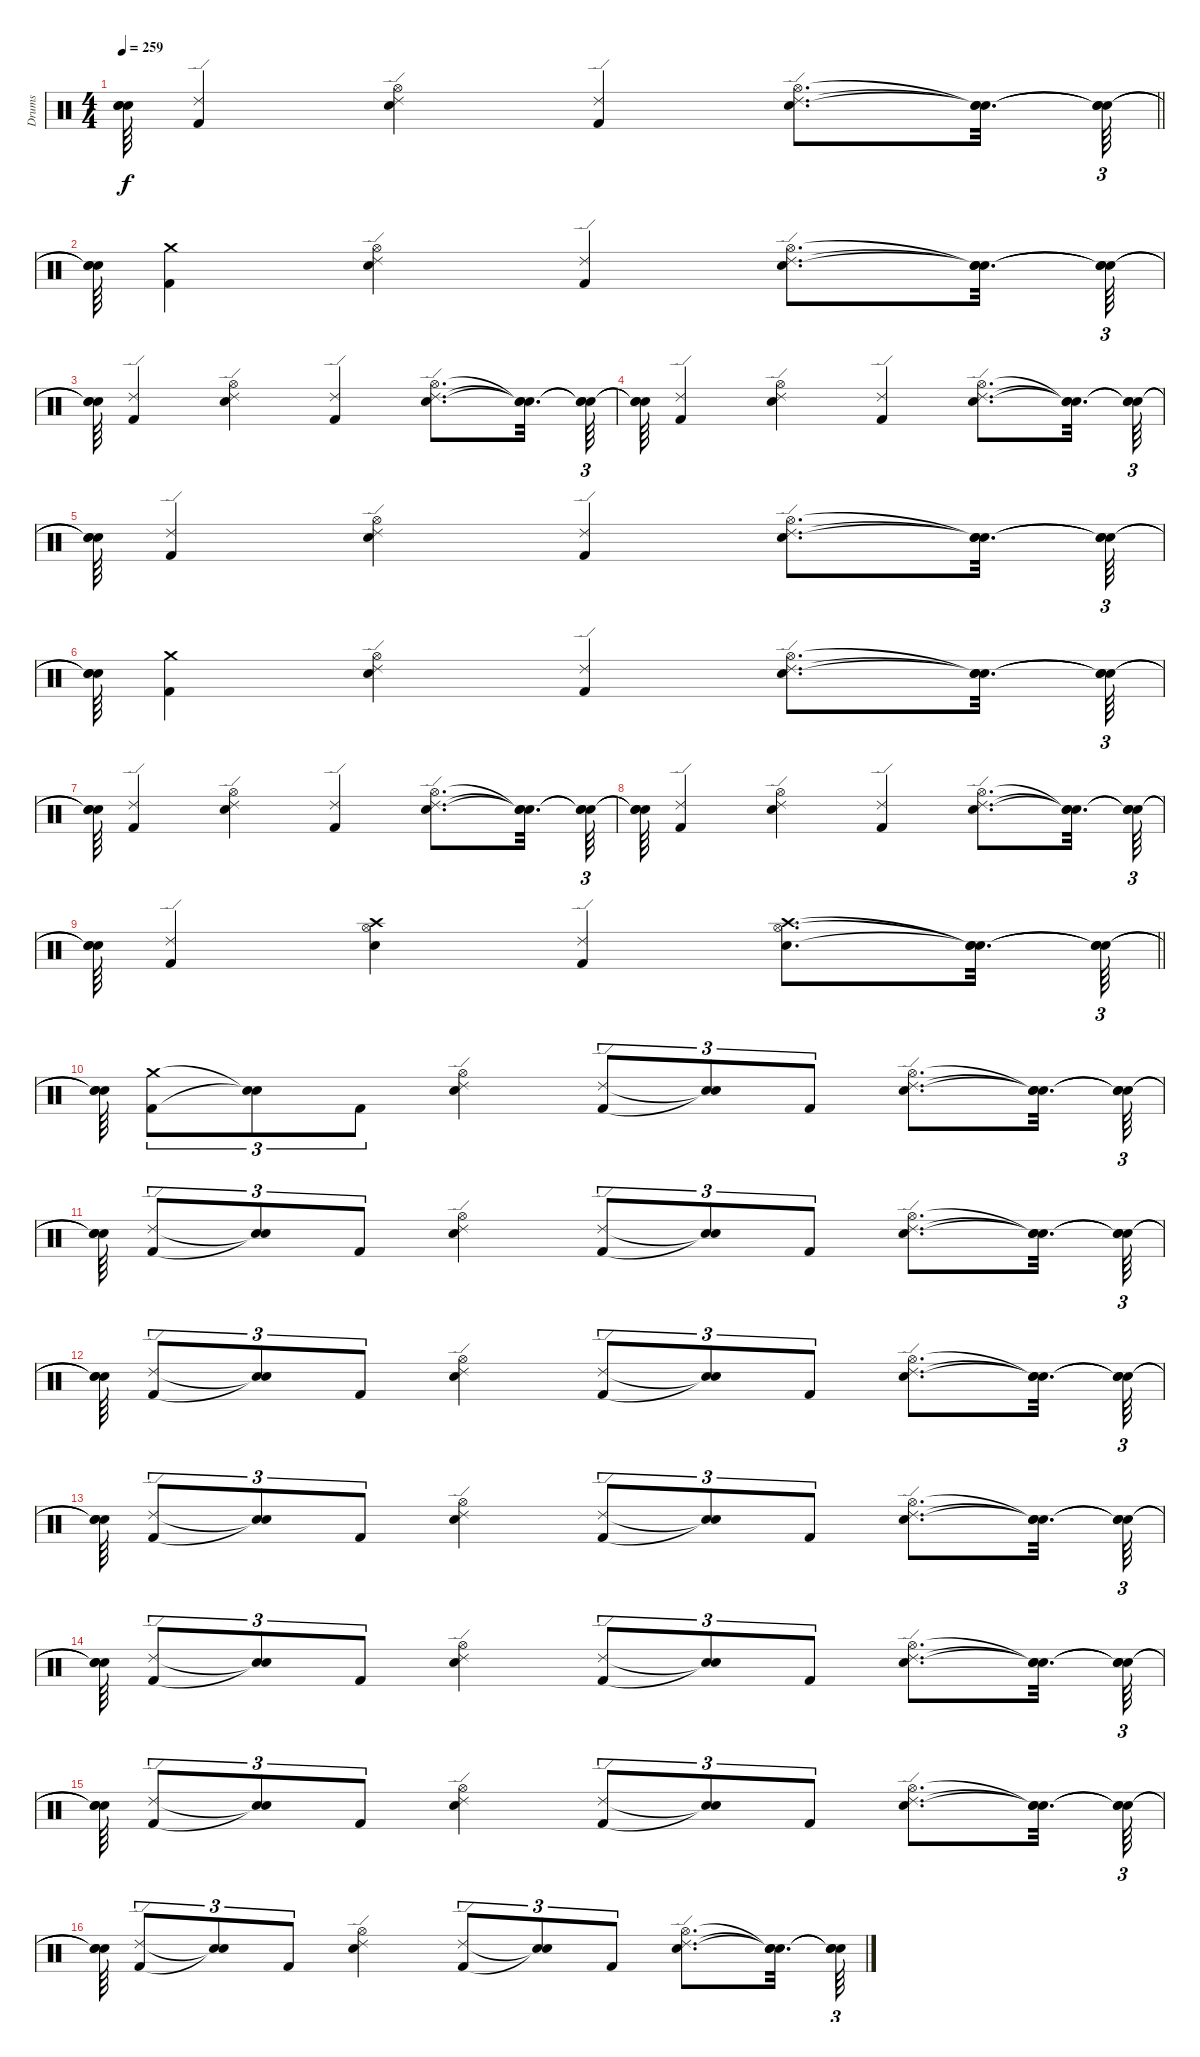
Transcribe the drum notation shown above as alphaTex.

\track ("Drums" "Drums") {instrument percussion}
\staff {score}
\articulation defaults
\ts (4 4)
\tempo 259
\clef neutral
\barLineRight lightlight
\ks c
("Snare (hit)"{t} "Snare (hit)"{t} "Snare (hit)"{t}).64{dy f} ("Kick (hit) 2" "Ride (edge) 2").4 ("Electric Snare (hit)" "Ride (edge) 2" "Hi-Hat (open)").4 ("Kick (hit) 2" "Ride (edge) 2").4 ("Electric Snare (hit)" "Ride (edge) 2" "Hi-Hat (open)").8{d} ("Snare (hit)"{t} "Snare (hit)"{t} "Snare (hit)"{t}).32{d} ("Snare (hit)"{t} "Snare (hit)"{t} "Snare (hit)"{t}).64{tu (3 2)} |
("Snare (hit)"{t} "Snare (hit)"{t} "Snare (hit)"{t}).64 ("Kick (hit) 2" "Crash medium (hit)").4 ("Electric Snare (hit)" "Ride (edge) 2" "Hi-Hat (open)").4 ("Kick (hit) 2" "Ride (edge) 2").4 ("Electric Snare (hit)" "Ride (edge) 2" "Hi-Hat (open)").8{d} ("Snare (hit)"{t} "Snare (hit)"{t} "Snare (hit)"{t}).32{d} ("Snare (hit)"{t} "Snare (hit)"{t} "Snare (hit)"{t}).64{tu (3 2)} |
("Snare (hit)"{t} "Snare (hit)"{t} "Snare (hit)"{t}).64 ("Kick (hit) 2" "Ride (edge) 2").4 ("Electric Snare (hit)" "Ride (edge) 2" "Hi-Hat (open)").4 ("Kick (hit) 2" "Ride (edge) 2").4 ("Electric Snare (hit)" "Ride (edge) 2" "Hi-Hat (open)").8{d} ("Snare (hit)"{t} "Snare (hit)"{t} "Snare (hit)"{t}).32{d} ("Snare (hit)"{t} "Snare (hit)"{t} "Snare (hit)"{t}).64{tu (3 2)} |
("Snare (hit)"{t} "Snare (hit)"{t} "Snare (hit)"{t}).64 ("Kick (hit) 2" "Ride (edge) 2").4 ("Electric Snare (hit)" "Ride (edge) 2" "Hi-Hat (open)").4 ("Kick (hit) 2" "Ride (edge) 2").4 ("Electric Snare (hit)" "Ride (edge) 2" "Hi-Hat (open)").8{d} ("Snare (hit)"{t} "Snare (hit)"{t} "Snare (hit)"{t}).32{d} ("Snare (hit)"{t} "Snare (hit)"{t} "Snare (hit)"{t}).64{tu (3 2)} |
("Snare (hit)"{t} "Snare (hit)"{t} "Snare (hit)"{t}).64 ("Kick (hit) 2" "Ride (edge) 2").4 ("Electric Snare (hit)" "Ride (edge) 2" "Hi-Hat (open)").4 ("Kick (hit) 2" "Ride (edge) 2").4 ("Electric Snare (hit)" "Ride (edge) 2" "Hi-Hat (open)").8{d} ("Snare (hit)"{t} "Snare (hit)"{t} "Snare (hit)"{t}).32{d} ("Snare (hit)"{t} "Snare (hit)"{t} "Snare (hit)"{t}).64{tu (3 2)} |
("Snare (hit)"{t} "Snare (hit)"{t} "Snare (hit)"{t}).64 ("Kick (hit) 2" "Crash medium (hit)").4 ("Electric Snare (hit)" "Ride (edge) 2" "Hi-Hat (open)").4 ("Kick (hit) 2" "Ride (edge) 2").4 ("Electric Snare (hit)" "Ride (edge) 2" "Hi-Hat (open)").8{d} ("Snare (hit)"{t} "Snare (hit)"{t} "Snare (hit)"{t}).32{d} ("Snare (hit)"{t} "Snare (hit)"{t} "Snare (hit)"{t}).64{tu (3 2)} |
("Snare (hit)"{t} "Snare (hit)"{t} "Snare (hit)"{t}).64 ("Kick (hit) 2" "Ride (edge) 2").4 ("Electric Snare (hit)" "Ride (edge) 2" "Hi-Hat (open)").4 ("Kick (hit) 2" "Ride (edge) 2").4 ("Electric Snare (hit)" "Ride (edge) 2" "Hi-Hat (open)").8{d} ("Snare (hit)"{t} "Snare (hit)"{t} "Snare (hit)"{t}).32{d} ("Snare (hit)"{t} "Snare (hit)"{t} "Snare (hit)"{t}).64{tu (3 2)} |
("Snare (hit)"{t} "Snare (hit)"{t} "Snare (hit)"{t}).64 ("Kick (hit) 2" "Ride (edge) 2").4 ("Electric Snare (hit)" "Ride (edge) 2" "Hi-Hat (open)").4 ("Kick (hit) 2" "Ride (edge) 2").4 ("Electric Snare (hit)" "Ride (edge) 2" "Hi-Hat (open)").8{d} ("Snare (hit)"{t} "Snare (hit)"{t} "Snare (hit)"{t}).32{d} ("Snare (hit)"{t} "Snare (hit)"{t} "Snare (hit)"{t}).64{tu (3 2)} |
\barLineRight lightlight
("Snare (hit)"{t} "Snare (hit)"{t} "Snare (hit)"{t}).64 ("Kick (hit) 2" "Ride (edge) 2").4 ("Electric Snare (hit)" "Crash high (hit)" "Hi-Hat (open)").4 ("Kick (hit) 2" "Ride (edge) 2").4 ("Electric Snare (hit)" "Crash high (hit)" "Hi-Hat (open)").8{d} ("Snare (hit)"{t} "Snare (hit)"{t} "Snare (hit)"{t}).32{d} ("Snare (hit)"{t} "Snare (hit)"{t} "Snare (hit)"{t}).64{tu (3 2)} |
\section ("" "")
("Snare (hit)"{t} "Snare (hit)"{t} "Snare (hit)"{t}).64 ("Kick (hit) 2" "Crash medium (hit)").8{tu (3 2)} ("Snare (hit)"{t} "Snare (hit)"{t}).8{tu (3 2)} "Kick (hit) 2".8{tu (3 2)} ("Electric Snare (hit)" "Ride (edge) 2" "Hi-Hat (open)").4 ("Kick (hit) 2" "Ride (edge) 2").8{tu (3 2)} ("Snare (hit)"{t} "Snare (hit)"{t}).8{tu (3 2)} "Kick (hit) 2".8{tu (3 2)} ("Electric Snare (hit)" "Ride (edge) 2" "Hi-Hat (open)").8{d} ("Snare (hit)"{t} "Snare (hit)"{t} "Snare (hit)"{t}).32{d} ("Snare (hit)"{t} "Snare (hit)"{t} "Snare (hit)"{t}).64{tu (3 2)} |
("Snare (hit)"{t} "Snare (hit)"{t} "Snare (hit)"{t}).64 ("Kick (hit) 2" "Ride (edge) 2").8{tu (3 2)} ("Snare (hit)"{t} "Snare (hit)"{t}).8{tu (3 2)} "Kick (hit) 2".8{tu (3 2)} ("Electric Snare (hit)" "Ride (edge) 2" "Hi-Hat (open)").4 ("Kick (hit) 2" "Ride (edge) 2").8{tu (3 2)} ("Snare (hit)"{t} "Snare (hit)"{t}).8{tu (3 2)} "Kick (hit) 2".8{tu (3 2)} ("Electric Snare (hit)" "Ride (edge) 2" "Hi-Hat (open)").8{d} ("Snare (hit)"{t} "Snare (hit)"{t} "Snare (hit)"{t}).32{d} ("Snare (hit)"{t} "Snare (hit)"{t} "Snare (hit)"{t}).64{tu (3 2)} |
("Snare (hit)"{t} "Snare (hit)"{t} "Snare (hit)"{t}).64 ("Kick (hit) 2" "Ride (edge) 2").8{tu (3 2)} ("Snare (hit)"{t} "Snare (hit)"{t}).8{tu (3 2)} "Kick (hit) 2".8{tu (3 2)} ("Electric Snare (hit)" "Ride (edge) 2" "Hi-Hat (open)").4 ("Kick (hit) 2" "Ride (edge) 2").8{tu (3 2)} ("Snare (hit)"{t} "Snare (hit)"{t}).8{tu (3 2)} "Kick (hit) 2".8{tu (3 2)} ("Electric Snare (hit)" "Ride (edge) 2" "Hi-Hat (open)").8{d} ("Snare (hit)"{t} "Snare (hit)"{t} "Snare (hit)"{t}).32{d} ("Snare (hit)"{t} "Snare (hit)"{t} "Snare (hit)"{t}).64{tu (3 2)} |
("Snare (hit)"{t} "Snare (hit)"{t} "Snare (hit)"{t}).64 ("Kick (hit) 2" "Ride (edge) 2").8{tu (3 2)} ("Snare (hit)"{t} "Snare (hit)"{t}).8{tu (3 2)} "Kick (hit) 2".8{tu (3 2)} ("Electric Snare (hit)" "Ride (edge) 2" "Hi-Hat (open)").4 ("Kick (hit) 2" "Ride (edge) 2").8{tu (3 2)} ("Snare (hit)"{t} "Snare (hit)"{t}).8{tu (3 2)} "Kick (hit) 2".8{tu (3 2)} ("Electric Snare (hit)" "Ride (edge) 2" "Hi-Hat (open)").8{d} ("Snare (hit)"{t} "Snare (hit)"{t} "Snare (hit)"{t}).32{d} ("Snare (hit)"{t} "Snare (hit)"{t} "Snare (hit)"{t}).64{tu (3 2)} |
("Snare (hit)"{t} "Snare (hit)"{t} "Snare (hit)"{t}).64 ("Kick (hit) 2" "Ride (edge) 2").8{tu (3 2)} ("Snare (hit)"{t} "Snare (hit)"{t}).8{tu (3 2)} "Kick (hit) 2".8{tu (3 2)} ("Electric Snare (hit)" "Ride (edge) 2" "Hi-Hat (open)").4 ("Kick (hit) 2" "Ride (edge) 2").8{tu (3 2)} ("Snare (hit)"{t} "Snare (hit)"{t}).8{tu (3 2)} "Kick (hit) 2".8{tu (3 2)} ("Electric Snare (hit)" "Ride (edge) 2" "Hi-Hat (open)").8{d} ("Snare (hit)"{t} "Snare (hit)"{t} "Snare (hit)"{t}).32{d} ("Snare (hit)"{t} "Snare (hit)"{t} "Snare (hit)"{t}).64{tu (3 2)} |
("Snare (hit)"{t} "Snare (hit)"{t} "Snare (hit)"{t}).64 ("Kick (hit) 2" "Ride (edge) 2").8{tu (3 2)} ("Snare (hit)"{t} "Snare (hit)"{t}).8{tu (3 2)} "Kick (hit) 2".8{tu (3 2)} ("Electric Snare (hit)" "Ride (edge) 2" "Hi-Hat (open)").4 ("Kick (hit) 2" "Ride (edge) 2").8{tu (3 2)} ("Snare (hit)"{t} "Snare (hit)"{t}).8{tu (3 2)} "Kick (hit) 2".8{tu (3 2)} ("Electric Snare (hit)" "Ride (edge) 2" "Hi-Hat (open)").8{d} ("Snare (hit)"{t} "Snare (hit)"{t} "Snare (hit)"{t}).32{d} ("Snare (hit)"{t} "Snare (hit)"{t} "Snare (hit)"{t}).64{tu (3 2)} |
("Snare (hit)"{t} "Snare (hit)"{t} "Snare (hit)"{t}).64 ("Kick (hit) 2" "Ride (edge) 2").8{tu (3 2)} ("Snare (hit)"{t} "Snare (hit)"{t}).8{tu (3 2)} "Kick (hit) 2".8{tu (3 2)} ("Electric Snare (hit)" "Ride (edge) 2" "Hi-Hat (open)").4 ("Kick (hit) 2" "Ride (edge) 2").8{tu (3 2)} ("Snare (hit)"{t} "Snare (hit)"{t}).8{tu (3 2)} "Kick (hit) 2".8{tu (3 2)} ("Electric Snare (hit)" "Ride (edge) 2" "Hi-Hat (open)").8{d} ("Snare (hit)"{t} "Snare (hit)"{t} "Snare (hit)"{t}).32{d} ("Snare (hit)"{t} "Snare (hit)"{t} "Snare (hit)"{t}).64{tu (3 2)}
